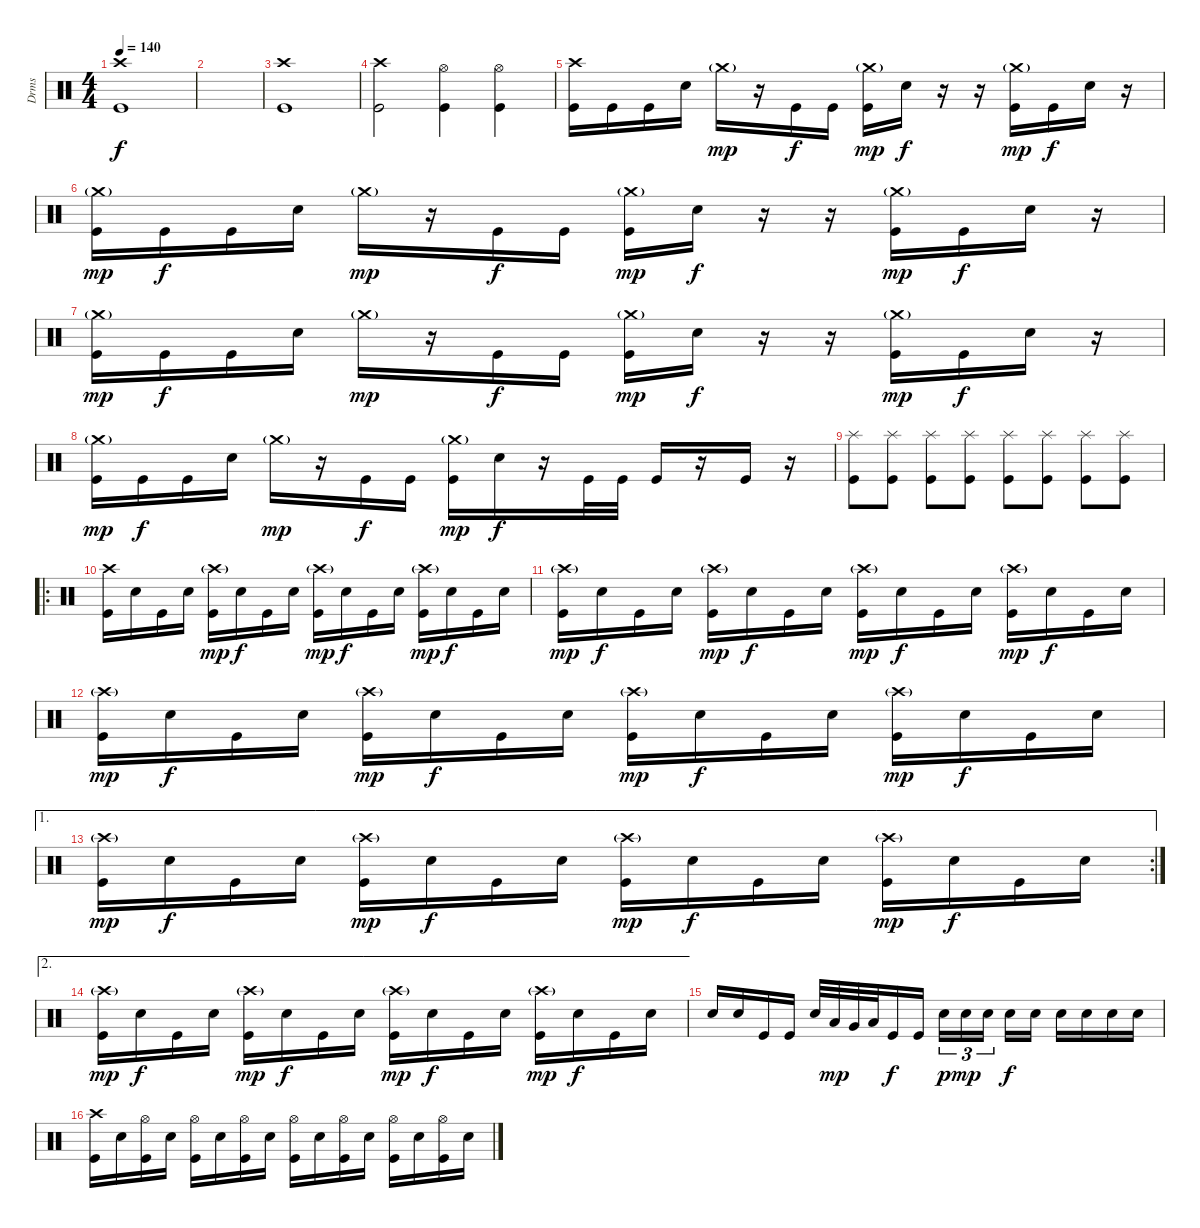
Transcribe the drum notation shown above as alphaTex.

\track ("Drms" "Drms") {instrument percussion}
\staff {score}
\articulation defaults
\ts (4 4)
\tempo 140
\clef neutral
\ks c
("Crash high (hit)" "Kick (hit)").1{dy f} |
|
("Crash high (hit)" "Kick (hit)").1 |
("Crash high (hit)" "Kick (hit)").2 ("Hi-Hat (open)" "Kick (hit)").4 ("Hi-Hat (open)" "Kick (hit)").4 |
("Crash high (hit)" "Kick (hit)").16 "Kick (hit)".16 "Kick (hit)".16 "Electric Snare (hit)".16 "Crash medium (hit)"{g}.16{dy mp} r.16 "Kick (hit)".16{dy f} "Kick (hit)".16 ("Crash medium (hit)"{g} "Kick (hit)").16{dy mp} "Electric Snare (hit)".16{dy f} r.16 r.16 ("Crash medium (hit)"{g} "Kick (hit)").16{dy mp} "Kick (hit)".16{dy f} "Electric Snare (hit)".16 r.16 |
("Crash medium (hit)"{g} "Kick (hit)").16{dy mp} "Kick (hit)".16{dy f} "Kick (hit)".16 "Electric Snare (hit)".16 "Crash medium (hit)"{g}.16{dy mp} r.16 "Kick (hit)".16{dy f} "Kick (hit)".16 ("Crash medium (hit)"{g} "Kick (hit)").16{dy mp} "Electric Snare (hit)".16{dy f} r.16 r.16 ("Crash medium (hit)"{g} "Kick (hit)").16{dy mp} "Kick (hit)".16{dy f} "Electric Snare (hit)".16 r.16 |
("Crash medium (hit)"{g} "Kick (hit)").16{dy mp} "Kick (hit)".16{dy f} "Kick (hit)".16 "Electric Snare (hit)".16 "Crash medium (hit)"{g}.16{dy mp} r.16 "Kick (hit)".16{dy f} "Kick (hit)".16 ("Crash medium (hit)"{g} "Kick (hit)").16{dy mp} "Electric Snare (hit)".16{dy f} r.16 r.16 ("Crash medium (hit)"{g} "Kick (hit)").16{dy mp} "Kick (hit)".16{dy f} "Electric Snare (hit)".16 r.16 |
("Crash medium (hit)"{g} "Kick (hit)").16{dy mp} "Kick (hit)".16{dy f} "Kick (hit)".16 "Electric Snare (hit)".16 "Crash medium (hit)"{g}.16{dy mp} r.16 "Kick (hit)".16{dy f} "Kick (hit)".16 ("Crash medium (hit)"{g} "Kick (hit)").16{dy mp} "Electric Snare (hit)".16{dy f} r.16 "Kick (hit)".32 "Kick (hit)".32 "Kick (hit)".16 r.16 "Kick (hit)".16 r.16 |
("Splash (hit)" "Kick (hit)").8 ("Splash (hit)" "Kick (hit)").8 ("Splash (hit)" "Kick (hit)").8 ("Splash (hit)" "Kick (hit)").8 ("Splash (hit)" "Kick (hit)").8 ("Splash (hit)" "Kick (hit)").8 ("Splash (hit)" "Kick (hit)").8 ("Splash (hit)" "Kick (hit)").8 |
\ro
("Crash high (hit)" "Kick (hit)").16 "Electric Snare (hit)".16 "Kick (hit)".16 "Electric Snare (hit)".16 ("Crash high (hit)"{g} "Kick (hit)").16{dy mp} "Electric Snare (hit)".16{dy f} "Kick (hit)".16 "Electric Snare (hit)".16 ("Crash high (hit)"{g} "Kick (hit)").16{dy mp} "Electric Snare (hit)".16{dy f} "Kick (hit)".16 "Electric Snare (hit)".16 ("Crash high (hit)"{g} "Kick (hit)").16{dy mp} "Electric Snare (hit)".16{dy f} "Kick (hit)".16 "Electric Snare (hit)".16 |
("Crash high (hit)"{g} "Kick (hit)").16{dy mp} "Electric Snare (hit)".16{dy f} "Kick (hit)".16 "Electric Snare (hit)".16 ("Crash high (hit)"{g} "Kick (hit)").16{dy mp} "Electric Snare (hit)".16{dy f} "Kick (hit)".16 "Electric Snare (hit)".16 ("Crash high (hit)"{g} "Kick (hit)").16{dy mp} "Electric Snare (hit)".16{dy f} "Kick (hit)".16 "Electric Snare (hit)".16 ("Crash high (hit)"{g} "Kick (hit)").16{dy mp} "Electric Snare (hit)".16{dy f} "Kick (hit)".16 "Electric Snare (hit)".16 |
("Crash high (hit)"{g} "Kick (hit)").16{dy mp} "Electric Snare (hit)".16{dy f} "Kick (hit)".16 "Electric Snare (hit)".16 ("Crash high (hit)"{g} "Kick (hit)").16{dy mp} "Electric Snare (hit)".16{dy f} "Kick (hit)".16 "Electric Snare (hit)".16 ("Crash high (hit)"{g} "Kick (hit)").16{dy mp} "Electric Snare (hit)".16{dy f} "Kick (hit)".16 "Electric Snare (hit)".16 ("Crash high (hit)"{g} "Kick (hit)").16{dy mp} "Electric Snare (hit)".16{dy f} "Kick (hit)".16 "Electric Snare (hit)".16 |
\ae 1
\rc 2
("Crash high (hit)"{g} "Kick (hit)").16{dy mp} "Electric Snare (hit)".16{dy f} "Kick (hit)".16 "Electric Snare (hit)".16 ("Crash high (hit)"{g} "Kick (hit)").16{dy mp} "Electric Snare (hit)".16{dy f} "Kick (hit)".16 "Electric Snare (hit)".16 ("Crash high (hit)"{g} "Kick (hit)").16{dy mp} "Electric Snare (hit)".16{dy f} "Kick (hit)".16 "Electric Snare (hit)".16 ("Crash high (hit)"{g} "Kick (hit)").16{dy mp} "Electric Snare (hit)".16{dy f} "Kick (hit)".16 "Electric Snare (hit)".16 |
\ae 2
("Crash high (hit)"{g} "Kick (hit)").16{dy mp} "Electric Snare (hit)".16{dy f} "Kick (hit)".16 "Electric Snare (hit)".16 ("Crash high (hit)"{g} "Kick (hit)").16{dy mp} "Electric Snare (hit)".16{dy f} "Kick (hit)".16 "Electric Snare (hit)".16 ("Crash high (hit)"{g} "Kick (hit)").16{dy mp} "Electric Snare (hit)".16{dy f} "Kick (hit)".16 "Electric Snare (hit)".16 ("Crash high (hit)"{g} "Kick (hit)").16{dy mp} "Electric Snare (hit)".16{dy f} "Kick (hit)".16 "Electric Snare (hit)".16 |
"Electric Snare (hit)".16 "Electric Snare (hit)".16 "Kick (hit)".16 "Kick (hit)".16 "Electric Snare (hit)".32 "Low Tom (hit)".32{dy mp} "Very Low Tom (hit)".32 "Low Floor Tom (hit)".32 "Kick (hit)".16{dy f} "Kick (hit)".16 "Electric Snare (hit)".16{tu (3 2) dy p} "Electric Snare (hit)".16{tu (3 2) dy mp} "Electric Snare (hit)".16{tu (3 2) beam splitsecondary} "Electric Snare (hit)".16{dy f} "Electric Snare (hit)".16 "Electric Snare (hit)".16 "Electric Snare (hit)".16 "Electric Snare (hit)".16 "Electric Snare (hit)".16 |
("Crash high (hit)" "Kick (hit)").16 "Electric Snare (hit)".16 ("Hi-Hat (open)" "Kick (hit)").16 "Electric Snare (hit)".16 ("Hi-Hat (open)" "Kick (hit)").16 "Electric Snare (hit)".16 ("Hi-Hat (open)" "Kick (hit)").16 "Electric Snare (hit)".16 ("Hi-Hat (open)" "Kick (hit)").16 "Electric Snare (hit)".16 ("Hi-Hat (open)" "Kick (hit)").16 "Electric Snare (hit)".16 ("Hi-Hat (open)" "Kick (hit)").16 "Electric Snare (hit)".16 ("Hi-Hat (open)" "Kick (hit)").16 "Electric Snare (hit)".16
